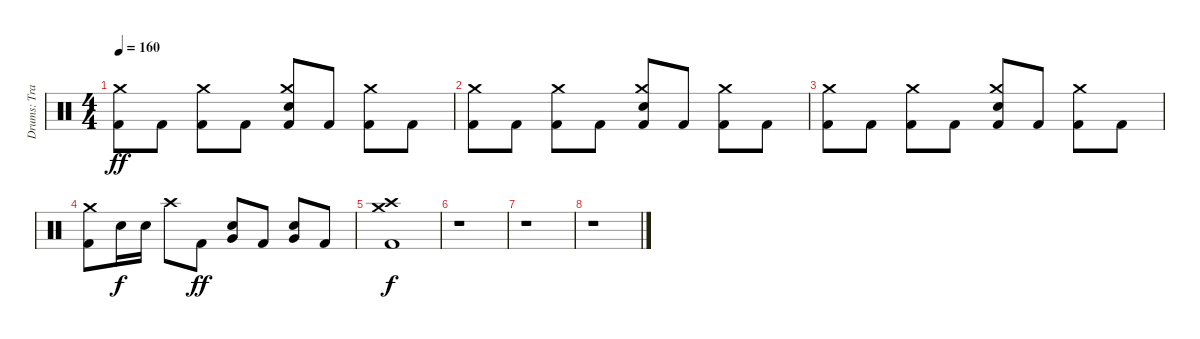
\track ("Drums: Travis Clarke" "Drums: Tra") {instrument percussion}
\staff {score}
\articulation defaults
\ts (4 4)
\tempo 160
\clef neutral
\ks c
("Kick (hit) 2" "Crash medium (hit)").8{dy ff} "Kick (hit) 2".8 ("Kick (hit) 2" "Crash medium (hit)").8 "Kick (hit) 2".8 ("Kick (hit) 2" "Snare (hit) 2" "Crash medium (hit)").8 "Kick (hit) 2".8 ("Kick (hit) 2" "Crash medium (hit)").8 "Kick (hit) 2".8 |
("Kick (hit) 2" "Crash medium (hit)").8 "Kick (hit) 2".8 ("Kick (hit) 2" "Crash medium (hit)").8 "Kick (hit) 2".8 ("Kick (hit) 2" "Snare (hit) 2" "Crash medium (hit)").8 "Kick (hit) 2".8 ("Kick (hit) 2" "Crash medium (hit)").8 "Kick (hit) 2".8 |
("Kick (hit) 2" "Crash medium (hit)").8 "Kick (hit) 2".8 ("Kick (hit) 2" "Crash medium (hit)").8 "Kick (hit) 2".8 ("Kick (hit) 2" "Snare (hit) 2" "Crash medium (hit)").8 "Kick (hit) 2".8 ("Kick (hit) 2" "Crash medium (hit)").8 "Kick (hit) 2".8 |
("Kick (hit) 2" "Crash medium (hit)").8 "Snare (hit) 2".16{dy f} "Snare (hit) 2".16 "Crash high (hit)".8 "Kick (hit) 2".8{dy ff} ("Snare (hit) 2" "Very Low Tom (hit)").8 "Kick (hit) 2".8 ("Snare (hit) 2" "Very Low Tom (hit)").8 "Kick (hit) 2".8 |
("Kick (hit) 2" "Crash high (hit)" "Crash medium (hit)").1{dy f} |
r.1{volume 0} |
r.1 |
r.1
